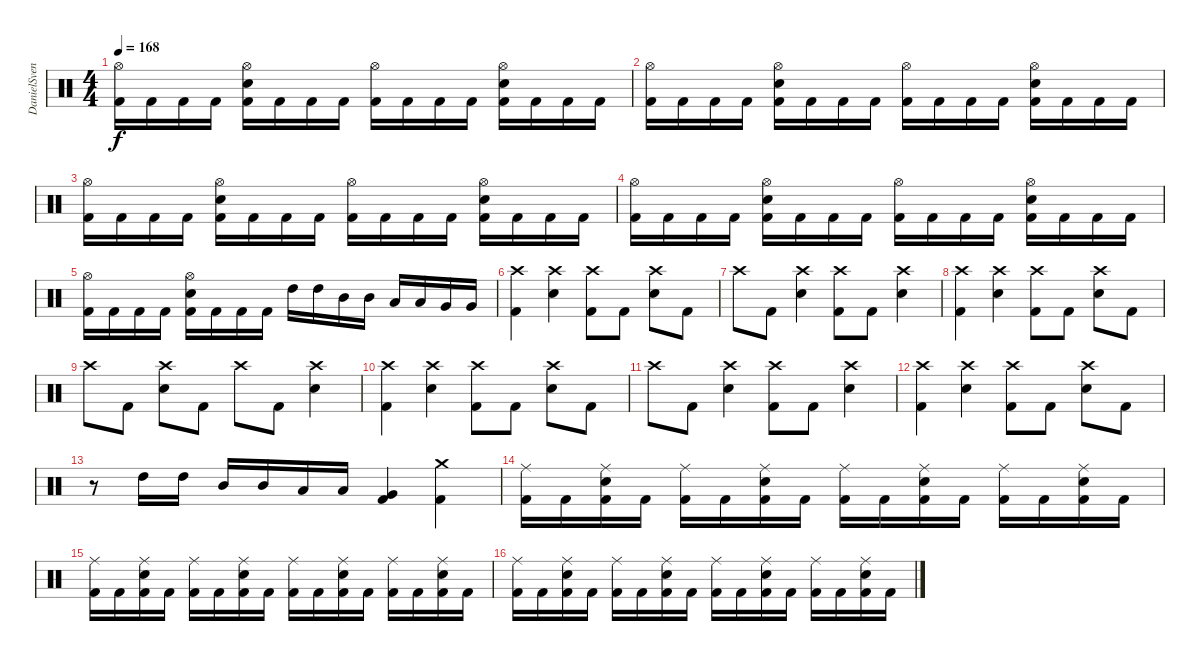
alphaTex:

\track ("DanielSvensson" "DanielSven") {instrument percussion}
\staff {score}
\articulation defaults
\ts (4 4)
\tempo 168
\clef neutral
\ks c
("Hi-Hat (open)" "Kick (hit) 2").16{dy f} "Kick (hit) 2".16 "Kick (hit) 2".16 "Kick (hit) 2".16 ("Hi-Hat (open)" "Electric Snare (hit)" "Kick (hit) 2").16 "Kick (hit) 2".16 "Kick (hit) 2".16 "Kick (hit) 2".16 ("Hi-Hat (open)" "Kick (hit) 2").16 "Kick (hit) 2".16 "Kick (hit) 2".16 "Kick (hit) 2".16 ("Hi-Hat (open)" "Electric Snare (hit)" "Kick (hit) 2").16 "Kick (hit) 2".16 "Kick (hit) 2".16 "Kick (hit) 2".16 |
("Hi-Hat (open)" "Kick (hit) 2").16 "Kick (hit) 2".16 "Kick (hit) 2".16 "Kick (hit) 2".16 ("Hi-Hat (open)" "Electric Snare (hit)" "Kick (hit) 2").16 "Kick (hit) 2".16 "Kick (hit) 2".16 "Kick (hit) 2".16 ("Hi-Hat (open)" "Kick (hit) 2").16 "Kick (hit) 2".16 "Kick (hit) 2".16 "Kick (hit) 2".16 ("Hi-Hat (open)" "Electric Snare (hit)" "Kick (hit) 2").16 "Kick (hit) 2".16 "Kick (hit) 2".16 "Kick (hit) 2".16 |
("Hi-Hat (open)" "Kick (hit) 2").16 "Kick (hit) 2".16 "Kick (hit) 2".16 "Kick (hit) 2".16 ("Hi-Hat (open)" "Electric Snare (hit)" "Kick (hit) 2").16 "Kick (hit) 2".16 "Kick (hit) 2".16 "Kick (hit) 2".16 ("Hi-Hat (open)" "Kick (hit) 2").16 "Kick (hit) 2".16 "Kick (hit) 2".16 "Kick (hit) 2".16 ("Hi-Hat (open)" "Electric Snare (hit)" "Kick (hit) 2").16 "Kick (hit) 2".16 "Kick (hit) 2".16 "Kick (hit) 2".16 |
("Hi-Hat (open)" "Kick (hit) 2").16 "Kick (hit) 2".16 "Kick (hit) 2".16 "Kick (hit) 2".16 ("Hi-Hat (open)" "Electric Snare (hit)" "Kick (hit) 2").16 "Kick (hit) 2".16 "Kick (hit) 2".16 "Kick (hit) 2".16 ("Hi-Hat (open)" "Kick (hit) 2").16 "Kick (hit) 2".16 "Kick (hit) 2".16 "Kick (hit) 2".16 ("Hi-Hat (open)" "Electric Snare (hit)" "Kick (hit) 2").16 "Kick (hit) 2".16 "Kick (hit) 2".16 "Kick (hit) 2".16 |
("Hi-Hat (open)" "Kick (hit) 2").16 "Kick (hit) 2".16 "Kick (hit) 2".16 "Kick (hit) 2".16 ("Hi-Hat (open)" "Electric Snare (hit)" "Kick (hit) 2").16 "Kick (hit) 2".16 "Kick (hit) 2".16 "Kick (hit) 2".16 "High Tom (hit)".16 "High Tom (hit)".16 "Mid Tom (hit)".16 "Mid Tom (hit)".16 "Low Tom (hit)".16 "Low Tom (hit)".16 "Very Low Tom (hit)".16 "Very Low Tom (hit)".16 |
("Crash high (hit)" "Kick (hit) 2").4 ("Crash high (hit)" "Electric Snare (hit)").4 ("Crash high (hit)" "Kick (hit) 2").8 "Kick (hit) 2".8 ("Crash high (hit)" "Electric Snare (hit)").8 "Kick (hit) 2".8 |
"Crash high (hit)".8 "Kick (hit) 2".8 ("Crash high (hit)" "Electric Snare (hit)").4 ("Crash high (hit)" "Kick (hit) 2").8 "Kick (hit) 2".8 ("Crash high (hit)" "Electric Snare (hit)").4 |
("Crash high (hit)" "Kick (hit) 2").4 ("Crash high (hit)" "Electric Snare (hit)").4 ("Crash high (hit)" "Kick (hit) 2").8 "Kick (hit) 2".8 ("Crash high (hit)" "Electric Snare (hit)").8 "Kick (hit) 2".8 |
"Crash high (hit)".8 "Kick (hit) 2".8 ("Crash high (hit)" "Electric Snare (hit)").8 "Kick (hit) 2".8 "Crash high (hit)".8 "Kick (hit) 2".8 ("Crash high (hit)" "Electric Snare (hit)").4 |
("Crash high (hit)" "Kick (hit) 2").4 ("Crash high (hit)" "Electric Snare (hit)").4 ("Crash high (hit)" "Kick (hit) 2").8 "Kick (hit) 2".8 ("Crash high (hit)" "Electric Snare (hit)").8 "Kick (hit) 2".8 |
"Crash high (hit)".8 "Kick (hit) 2".8 ("Crash high (hit)" "Electric Snare (hit)").4 ("Crash high (hit)" "Kick (hit) 2").8 "Kick (hit) 2".8 ("Crash high (hit)" "Electric Snare (hit)").4 |
("Crash high (hit)" "Kick (hit) 2").4 ("Crash high (hit)" "Electric Snare (hit)").4 ("Crash high (hit)" "Kick (hit) 2").8 "Kick (hit) 2".8 ("Crash high (hit)" "Electric Snare (hit)").8 "Kick (hit) 2".8 |
r.8 "High Tom (hit)".16 "High Tom (hit)".16 "Mid Tom (hit)".16 "Mid Tom (hit)".16 "Low Tom (hit)".16 "Low Tom (hit)".16 ("Very Low Tom (hit)" "Kick (hit) 2").4 ("Crash medium (hit)" "Kick (hit) 2").4 |
("Ride (middle)" "Kick (hit) 2").16 "Kick (hit) 2".16 ("Ride (middle)" "Electric Snare (hit)" "Kick (hit) 2").16 "Kick (hit) 2".16 ("Ride (middle)" "Kick (hit) 2").16 "Kick (hit) 2".16 ("Ride (middle)" "Electric Snare (hit)" "Kick (hit) 2").16 "Kick (hit) 2".16 ("Ride (middle)" "Kick (hit) 2").16 "Kick (hit) 2".16 ("Ride (middle)" "Electric Snare (hit)" "Kick (hit) 2").16 "Kick (hit) 2".16 ("Ride (middle)" "Kick (hit) 2").16 "Kick (hit) 2".16 ("Ride (middle)" "Electric Snare (hit)" "Kick (hit) 2").16 "Kick (hit) 2".16 |
("Ride (middle)" "Kick (hit) 2").16 "Kick (hit) 2".16 ("Ride (middle)" "Electric Snare (hit)" "Kick (hit) 2").16 "Kick (hit) 2".16 ("Ride (middle)" "Kick (hit) 2").16 "Kick (hit) 2".16 ("Ride (middle)" "Electric Snare (hit)" "Kick (hit) 2").16 "Kick (hit) 2".16 ("Ride (middle)" "Kick (hit) 2").16 "Kick (hit) 2".16 ("Ride (middle)" "Electric Snare (hit)" "Kick (hit) 2").16 "Kick (hit) 2".16 ("Ride (middle)" "Kick (hit) 2").16 "Kick (hit) 2".16 ("Ride (middle)" "Electric Snare (hit)" "Kick (hit) 2").16 "Kick (hit) 2".16 |
("Ride (middle)" "Kick (hit) 2").16 "Kick (hit) 2".16 ("Ride (middle)" "Electric Snare (hit)" "Kick (hit) 2").16 "Kick (hit) 2".16 ("Ride (middle)" "Kick (hit) 2").16 "Kick (hit) 2".16 ("Ride (middle)" "Electric Snare (hit)" "Kick (hit) 2").16 "Kick (hit) 2".16 ("Ride (middle)" "Kick (hit) 2").16 "Kick (hit) 2".16 ("Ride (middle)" "Electric Snare (hit)" "Kick (hit) 2").16 "Kick (hit) 2".16 ("Ride (middle)" "Kick (hit) 2").16 "Kick (hit) 2".16 ("Ride (middle)" "Electric Snare (hit)" "Kick (hit) 2").16 "Kick (hit) 2".16
